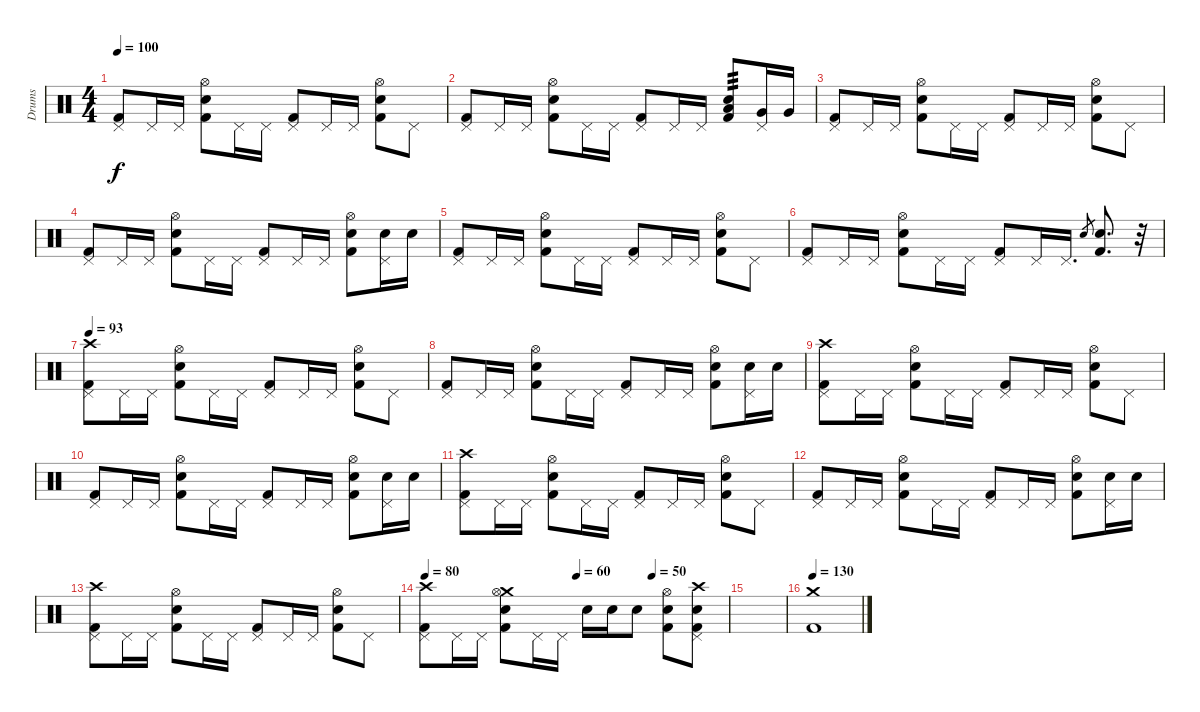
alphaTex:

\track ("Drums" "Drums") {instrument percussion}
\staff
\articulation defaults
\ts (4 4)
\tempo 100
\clef neutral
\ks c
("Pedal Hi-Hat (hit)" "Kick (hit) 2").8{dy f} "Pedal Hi-Hat (hit)".16 "Pedal Hi-Hat (hit)".16 ("Electric Snare (hit)" "Hi-Hat (open)" "Kick (hit) 2").8 "Pedal Hi-Hat (hit)".16 "Pedal Hi-Hat (hit)".16 ("Pedal Hi-Hat (hit)" "Kick (hit) 2").8 "Pedal Hi-Hat (hit)".16 "Pedal Hi-Hat (hit)".16 ("Electric Snare (hit)" "Hi-Hat (open)" "Kick (hit) 2").8 "Pedal Hi-Hat (hit)".8 |
("Pedal Hi-Hat (hit)" "Kick (hit) 2").8 "Pedal Hi-Hat (hit)".16 "Pedal Hi-Hat (hit)".16 ("Electric Snare (hit)" "Hi-Hat (open)" "Kick (hit) 2").8 "Pedal Hi-Hat (hit)".16 "Pedal Hi-Hat (hit)".16 ("Pedal Hi-Hat (hit)" "Kick (hit) 2").8 "Pedal Hi-Hat (hit)".16 "Pedal Hi-Hat (hit)".16 ("Electric Snare (hit)" "Low Tom (hit)" "Kick (hit) 2").8{tp 3} ("Pedal Hi-Hat (hit)" "Very Low Tom (hit)").16 "Very Low Tom (hit)".16 |
("Pedal Hi-Hat (hit)" "Kick (hit) 2").8 "Pedal Hi-Hat (hit)".16 "Pedal Hi-Hat (hit)".16 ("Electric Snare (hit)" "Hi-Hat (open)" "Kick (hit) 2").8 "Pedal Hi-Hat (hit)".16 "Pedal Hi-Hat (hit)".16 ("Pedal Hi-Hat (hit)" "Kick (hit) 2").8 "Pedal Hi-Hat (hit)".16 "Pedal Hi-Hat (hit)".16 ("Electric Snare (hit)" "Hi-Hat (open)" "Kick (hit) 2").8 "Pedal Hi-Hat (hit)".8 |
("Pedal Hi-Hat (hit)" "Kick (hit) 2").8 "Pedal Hi-Hat (hit)".16 "Pedal Hi-Hat (hit)".16 ("Electric Snare (hit)" "Hi-Hat (open)" "Kick (hit) 2").8 "Pedal Hi-Hat (hit)".16 "Pedal Hi-Hat (hit)".16 ("Pedal Hi-Hat (hit)" "Kick (hit) 2").8 "Pedal Hi-Hat (hit)".16 "Pedal Hi-Hat (hit)".16 ("Electric Snare (hit)" "Hi-Hat (open)" "Kick (hit) 2").8 ("Pedal Hi-Hat (hit)" "Electric Snare (hit)").16 "Electric Snare (hit)".16 |
("Pedal Hi-Hat (hit)" "Kick (hit) 2").8 "Pedal Hi-Hat (hit)".16 "Pedal Hi-Hat (hit)".16 ("Electric Snare (hit)" "Hi-Hat (open)" "Kick (hit) 2").8 "Pedal Hi-Hat (hit)".16 "Pedal Hi-Hat (hit)".16 ("Pedal Hi-Hat (hit)" "Kick (hit) 2").8 "Pedal Hi-Hat (hit)".16 "Pedal Hi-Hat (hit)".16 ("Electric Snare (hit)" "Hi-Hat (open)" "Kick (hit) 2").8 "Pedal Hi-Hat (hit)".8 |
("Pedal Hi-Hat (hit)" "Kick (hit) 2").8 "Pedal Hi-Hat (hit)".16 "Pedal Hi-Hat (hit)".16 ("Electric Snare (hit)" "Hi-Hat (open)" "Kick (hit) 2").8 "Pedal Hi-Hat (hit)".16 "Pedal Hi-Hat (hit)".16 ("Pedal Hi-Hat (hit)" "Kick (hit) 2").8 "Pedal Hi-Hat (hit)".16 "Pedal Hi-Hat (hit)".16{d} "Electric Snare (hit)".8{gr} ("Electric Snare (hit)" "Kick (hit) 2").8{d} r.32 |
\tempo 93
("Pedal Hi-Hat (hit)" "Crash high (hit)" "Kick (hit) 2").8 "Pedal Hi-Hat (hit)".16 "Pedal Hi-Hat (hit)".16 ("Electric Snare (hit)" "Hi-Hat (open)" "Kick (hit) 2").8 "Pedal Hi-Hat (hit)".16 "Pedal Hi-Hat (hit)".16 ("Pedal Hi-Hat (hit)" "Kick (hit) 2").8 "Pedal Hi-Hat (hit)".16 "Pedal Hi-Hat (hit)".16 ("Electric Snare (hit)" "Hi-Hat (open)" "Kick (hit) 2").8 "Pedal Hi-Hat (hit)".8 |
("Pedal Hi-Hat (hit)" "Kick (hit) 2").8 "Pedal Hi-Hat (hit)".16 "Pedal Hi-Hat (hit)".16 ("Electric Snare (hit)" "Hi-Hat (open)" "Kick (hit) 2").8 "Pedal Hi-Hat (hit)".16 "Pedal Hi-Hat (hit)".16 ("Pedal Hi-Hat (hit)" "Kick (hit) 2").8 "Pedal Hi-Hat (hit)".16 "Pedal Hi-Hat (hit)".16 ("Electric Snare (hit)" "Hi-Hat (open)" "Kick (hit) 2").8 ("Pedal Hi-Hat (hit)" "Electric Snare (hit)").16 "Electric Snare (hit)".16 |
("Pedal Hi-Hat (hit)" "Crash high (hit)" "Kick (hit) 2").8 "Pedal Hi-Hat (hit)".16 "Pedal Hi-Hat (hit)".16 ("Electric Snare (hit)" "Hi-Hat (open)" "Kick (hit) 2").8 "Pedal Hi-Hat (hit)".16 "Pedal Hi-Hat (hit)".16 ("Pedal Hi-Hat (hit)" "Kick (hit) 2").8 "Pedal Hi-Hat (hit)".16 "Pedal Hi-Hat (hit)".16 ("Electric Snare (hit)" "Hi-Hat (open)" "Kick (hit) 2").8 "Pedal Hi-Hat (hit)".8 |
("Pedal Hi-Hat (hit)" "Kick (hit) 2").8 "Pedal Hi-Hat (hit)".16 "Pedal Hi-Hat (hit)".16 ("Electric Snare (hit)" "Hi-Hat (open)" "Kick (hit) 2").8 "Pedal Hi-Hat (hit)".16 "Pedal Hi-Hat (hit)".16 ("Pedal Hi-Hat (hit)" "Kick (hit) 2").8 "Pedal Hi-Hat (hit)".16 "Pedal Hi-Hat (hit)".16 ("Electric Snare (hit)" "Hi-Hat (open)" "Kick (hit) 2").8 ("Pedal Hi-Hat (hit)" "Electric Snare (hit)").16 "Electric Snare (hit)".16 |
("Pedal Hi-Hat (hit)" "Crash high (hit)" "Kick (hit) 2").8 "Pedal Hi-Hat (hit)".16 "Pedal Hi-Hat (hit)".16 ("Electric Snare (hit)" "Hi-Hat (open)" "Kick (hit) 2").8 "Pedal Hi-Hat (hit)".16 "Pedal Hi-Hat (hit)".16 ("Pedal Hi-Hat (hit)" "Kick (hit) 2").8 "Pedal Hi-Hat (hit)".16 "Pedal Hi-Hat (hit)".16 ("Electric Snare (hit)" "Hi-Hat (open)" "Kick (hit) 2").8 "Pedal Hi-Hat (hit)".8 |
("Pedal Hi-Hat (hit)" "Kick (hit) 2").8 "Pedal Hi-Hat (hit)".16 "Pedal Hi-Hat (hit)".16 ("Electric Snare (hit)" "Hi-Hat (open)" "Kick (hit) 2").8 "Pedal Hi-Hat (hit)".16 "Pedal Hi-Hat (hit)".16 ("Pedal Hi-Hat (hit)" "Kick (hit) 2").8 "Pedal Hi-Hat (hit)".16 "Pedal Hi-Hat (hit)".16 ("Electric Snare (hit)" "Hi-Hat (open)" "Kick (hit) 2").8 ("Pedal Hi-Hat (hit)" "Electric Snare (hit)").16 "Electric Snare (hit)".16 |
("Pedal Hi-Hat (hit)" "Crash high (hit)" "Kick (hit) 2").8 "Pedal Hi-Hat (hit)".16 "Pedal Hi-Hat (hit)".16 ("Electric Snare (hit)" "Hi-Hat (open)" "Kick (hit) 2").8 "Pedal Hi-Hat (hit)".16 "Pedal Hi-Hat (hit)".16 ("Pedal Hi-Hat (hit)" "Kick (hit) 2").8 "Pedal Hi-Hat (hit)".16 "Pedal Hi-Hat (hit)".16 ("Electric Snare (hit)" "Hi-Hat (open)" "Kick (hit) 2").8 "Pedal Hi-Hat (hit)".8 |
\tempo 80
\tempo (60 0.5)
\tempo (50 0.75)
("Pedal Hi-Hat (hit)" "Crash high (hit)" "Kick (hit) 2").8 "Pedal Hi-Hat (hit)".16 "Pedal Hi-Hat (hit)".16 ("Crash medium (hit)" "Electric Snare (hit)" "Hi-Hat (open)" "Kick (hit) 2").8 "Pedal Hi-Hat (hit)".16 "Pedal Hi-Hat (hit)".16 "Electric Snare (hit)".16 "Electric Snare (hit)".16 "Electric Snare (hit)".8 ("Electric Snare (hit)" "Hi-Hat (open)" "Kick (hit) 2").8 ("Crash high (hit)" "Pedal Hi-Hat (hit)" "Electric Snare (hit)" "Kick (hit) 2").8 |
|
\tempo 130
("Crash medium (hit)" "Kick (hit) 2").1
